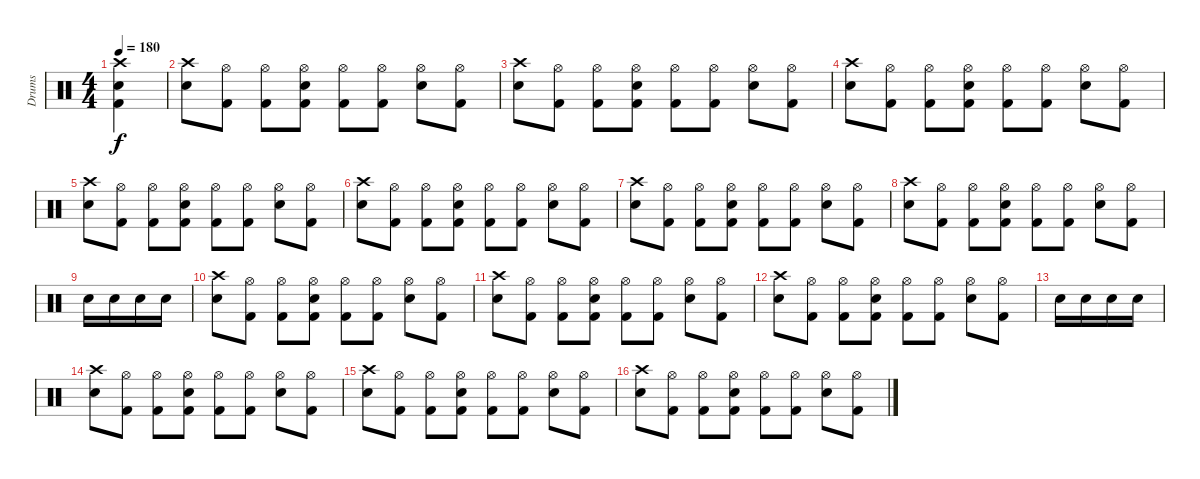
\track ("Drums" "Drums") {instrument percussion}
\staff {score}
\articulation defaults
\ts (4 4)
\tempo 180
\clef neutral
\ks c
("Kick (hit) 2" "Electric Snare (hit)" "Crash high (hit)").4{dy f} |
("Electric Snare (hit)" "Crash high (hit)").8 ("Kick (hit) 2" "Hi-Hat (open)").8 ("Kick (hit) 2" "Hi-Hat (open)").8 ("Kick (hit) 2" "Electric Snare (hit)" "Hi-Hat (open)").8 ("Kick (hit) 2" "Hi-Hat (open)").8 ("Kick (hit) 2" "Hi-Hat (open)").8 ("Electric Snare (hit)" "Hi-Hat (open)").8 ("Kick (hit) 2" "Hi-Hat (open)").8 |
("Electric Snare (hit)" "Crash high (hit)").8 ("Kick (hit) 2" "Hi-Hat (open)").8 ("Kick (hit) 2" "Hi-Hat (open)").8 ("Kick (hit) 2" "Electric Snare (hit)" "Hi-Hat (open)").8 ("Kick (hit) 2" "Hi-Hat (open)").8 ("Kick (hit) 2" "Hi-Hat (open)").8 ("Electric Snare (hit)" "Hi-Hat (open)").8 ("Kick (hit) 2" "Hi-Hat (open)").8 |
("Electric Snare (hit)" "Crash high (hit)").8 ("Kick (hit) 2" "Hi-Hat (open)").8 ("Kick (hit) 2" "Hi-Hat (open)").8 ("Kick (hit) 2" "Electric Snare (hit)" "Hi-Hat (open)").8 ("Kick (hit) 2" "Hi-Hat (open)").8 ("Kick (hit) 2" "Hi-Hat (open)").8 ("Electric Snare (hit)" "Hi-Hat (open)").8 ("Kick (hit) 2" "Hi-Hat (open)").8 |
("Electric Snare (hit)" "Crash high (hit)").8 ("Kick (hit) 2" "Hi-Hat (open)").8 ("Kick (hit) 2" "Hi-Hat (open)").8 ("Kick (hit) 2" "Electric Snare (hit)" "Hi-Hat (open)").8 ("Kick (hit) 2" "Hi-Hat (open)").8 ("Kick (hit) 2" "Hi-Hat (open)").8 ("Electric Snare (hit)" "Hi-Hat (open)").8 ("Kick (hit) 2" "Hi-Hat (open)").8 |
("Electric Snare (hit)" "Crash high (hit)").8 ("Kick (hit) 2" "Hi-Hat (open)").8 ("Kick (hit) 2" "Hi-Hat (open)").8 ("Kick (hit) 2" "Electric Snare (hit)" "Hi-Hat (open)").8 ("Kick (hit) 2" "Hi-Hat (open)").8 ("Kick (hit) 2" "Hi-Hat (open)").8 ("Electric Snare (hit)" "Hi-Hat (open)").8 ("Kick (hit) 2" "Hi-Hat (open)").8 |
("Electric Snare (hit)" "Crash high (hit)").8 ("Kick (hit) 2" "Hi-Hat (open)").8 ("Kick (hit) 2" "Hi-Hat (open)").8 ("Kick (hit) 2" "Electric Snare (hit)" "Hi-Hat (open)").8 ("Kick (hit) 2" "Hi-Hat (open)").8 ("Kick (hit) 2" "Hi-Hat (open)").8 ("Electric Snare (hit)" "Hi-Hat (open)").8 ("Kick (hit) 2" "Hi-Hat (open)").8 |
("Electric Snare (hit)" "Crash high (hit)").8 ("Kick (hit) 2" "Hi-Hat (open)").8 ("Kick (hit) 2" "Hi-Hat (open)").8 ("Kick (hit) 2" "Electric Snare (hit)" "Hi-Hat (open)").8 ("Kick (hit) 2" "Hi-Hat (open)").8 ("Kick (hit) 2" "Hi-Hat (open)").8 ("Electric Snare (hit)" "Hi-Hat (open)").8 ("Kick (hit) 2" "Hi-Hat (open)").8 |
"Electric Snare (hit)".16 "Electric Snare (hit)".16 "Electric Snare (hit)".16 "Electric Snare (hit)".16 |
("Electric Snare (hit)" "Crash high (hit)").8 ("Kick (hit) 2" "Hi-Hat (open)").8 ("Kick (hit) 2" "Hi-Hat (open)").8 ("Kick (hit) 2" "Electric Snare (hit)" "Hi-Hat (open)").8 ("Kick (hit) 2" "Hi-Hat (open)").8 ("Kick (hit) 2" "Hi-Hat (open)").8 ("Electric Snare (hit)" "Hi-Hat (open)").8 ("Kick (hit) 2" "Hi-Hat (open)").8 |
("Electric Snare (hit)" "Crash high (hit)").8 ("Kick (hit) 2" "Hi-Hat (open)").8 ("Kick (hit) 2" "Hi-Hat (open)").8 ("Kick (hit) 2" "Electric Snare (hit)" "Hi-Hat (open)").8 ("Kick (hit) 2" "Hi-Hat (open)").8 ("Kick (hit) 2" "Hi-Hat (open)").8 ("Electric Snare (hit)" "Hi-Hat (open)").8 ("Kick (hit) 2" "Hi-Hat (open)").8 |
("Electric Snare (hit)" "Crash high (hit)").8 ("Kick (hit) 2" "Hi-Hat (open)").8 ("Kick (hit) 2" "Hi-Hat (open)").8 ("Kick (hit) 2" "Electric Snare (hit)" "Hi-Hat (open)").8 ("Kick (hit) 2" "Hi-Hat (open)").8 ("Kick (hit) 2" "Hi-Hat (open)").8 ("Electric Snare (hit)" "Hi-Hat (open)").8 ("Kick (hit) 2" "Hi-Hat (open)").8 |
"Electric Snare (hit)".16 "Electric Snare (hit)".16 "Electric Snare (hit)".16 "Electric Snare (hit)".16 |
("Electric Snare (hit)" "Crash high (hit)").8 ("Kick (hit) 2" "Hi-Hat (open)").8 ("Kick (hit) 2" "Hi-Hat (open)").8 ("Kick (hit) 2" "Electric Snare (hit)" "Hi-Hat (open)").8 ("Kick (hit) 2" "Hi-Hat (open)").8 ("Kick (hit) 2" "Hi-Hat (open)").8 ("Electric Snare (hit)" "Hi-Hat (open)").8 ("Kick (hit) 2" "Hi-Hat (open)").8 |
("Electric Snare (hit)" "Crash high (hit)").8 ("Kick (hit) 2" "Hi-Hat (open)").8 ("Kick (hit) 2" "Hi-Hat (open)").8 ("Kick (hit) 2" "Electric Snare (hit)" "Hi-Hat (open)").8 ("Kick (hit) 2" "Hi-Hat (open)").8 ("Kick (hit) 2" "Hi-Hat (open)").8 ("Electric Snare (hit)" "Hi-Hat (open)").8 ("Kick (hit) 2" "Hi-Hat (open)").8 |
("Electric Snare (hit)" "Crash high (hit)").8 ("Kick (hit) 2" "Hi-Hat (open)").8 ("Kick (hit) 2" "Hi-Hat (open)").8 ("Kick (hit) 2" "Electric Snare (hit)" "Hi-Hat (open)").8 ("Kick (hit) 2" "Hi-Hat (open)").8 ("Kick (hit) 2" "Hi-Hat (open)").8 ("Electric Snare (hit)" "Hi-Hat (open)").8 ("Kick (hit) 2" "Hi-Hat (open)").8
